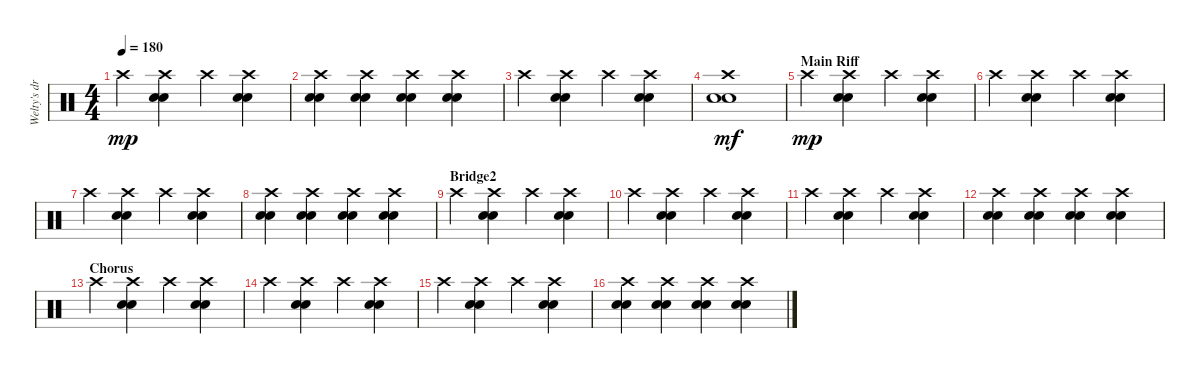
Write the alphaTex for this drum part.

\track ("Welty's drums" "Welty's dr") {instrument percussion}
\staff {score}
\articulation defaults
\ts (4 4)
\tempo 180
\clef neutral
\ks c "Crash high (hit)".4{dy mp}
("Crash high (hit)" "Electric Snare (hit)" "Electric Snare (hit)").4 "Crash high (hit)".4 ("Crash high (hit)" "Electric Snare (hit)" "Electric Snare (hit)").4 |
("Crash high (hit)" "Electric Snare (hit)" "Electric Snare (hit)").4 ("Crash high (hit)" "Electric Snare (hit)" "Electric Snare (hit)").4 ("Crash high (hit)" "Electric Snare (hit)" "Electric Snare (hit)").4 ("Crash high (hit)" "Electric Snare (hit)" "Electric Snare (hit)").4 |
"Crash high (hit)".4 ("Crash high (hit)" "Electric Snare (hit)" "Electric Snare (hit)").4 "Crash high (hit)".4 ("Crash high (hit)" "Electric Snare (hit)" "Electric Snare (hit)").4 |
("Crash high (hit)" "Electric Snare (hit)" "Electric Snare (hit)").1{dy mf} |
\section ("" "Main Riff")
"Crash high (hit)".4{dy mp} ("Crash high (hit)" "Electric Snare (hit)" "Electric Snare (hit)").4 "Crash high (hit)".4 ("Crash high (hit)" "Electric Snare (hit)" "Electric Snare (hit)").4 |
"Crash high (hit)".4 ("Crash high (hit)" "Electric Snare (hit)" "Electric Snare (hit)").4 "Crash high (hit)".4 ("Crash high (hit)" "Electric Snare (hit)" "Electric Snare (hit)").4 |
"Crash high (hit)".4 ("Crash high (hit)" "Electric Snare (hit)" "Electric Snare (hit)").4 "Crash high (hit)".4 ("Crash high (hit)" "Electric Snare (hit)" "Electric Snare (hit)").4 |
("Crash high (hit)" "Electric Snare (hit)" "Electric Snare (hit)").4 ("Crash high (hit)" "Electric Snare (hit)" "Electric Snare (hit)").4 ("Crash high (hit)" "Electric Snare (hit)" "Electric Snare (hit)").4 ("Crash high (hit)" "Electric Snare (hit)" "Electric Snare (hit)").4 |
\section ("" "Bridge2")
"Crash high (hit)".4 ("Crash high (hit)" "Electric Snare (hit)" "Electric Snare (hit)").4 "Crash high (hit)".4 ("Crash high (hit)" "Electric Snare (hit)" "Electric Snare (hit)").4 |
"Crash high (hit)".4 ("Crash high (hit)" "Electric Snare (hit)" "Electric Snare (hit)").4 "Crash high (hit)".4 ("Crash high (hit)" "Electric Snare (hit)" "Electric Snare (hit)").4 |
"Crash high (hit)".4 ("Crash high (hit)" "Electric Snare (hit)" "Electric Snare (hit)").4 "Crash high (hit)".4 ("Crash high (hit)" "Electric Snare (hit)" "Electric Snare (hit)").4 |
("Crash high (hit)" "Electric Snare (hit)" "Electric Snare (hit)").4 ("Crash high (hit)" "Electric Snare (hit)" "Electric Snare (hit)").4 ("Crash high (hit)" "Electric Snare (hit)" "Electric Snare (hit)").4 ("Crash high (hit)" "Electric Snare (hit)" "Electric Snare (hit)").4 |
\section ("" "Chorus")
"Crash high (hit)".4 ("Crash high (hit)" "Electric Snare (hit)" "Electric Snare (hit)").4 "Crash high (hit)".4 ("Crash high (hit)" "Electric Snare (hit)" "Electric Snare (hit)").4 |
"Crash high (hit)".4 ("Crash high (hit)" "Electric Snare (hit)" "Electric Snare (hit)").4 "Crash high (hit)".4 ("Crash high (hit)" "Electric Snare (hit)" "Electric Snare (hit)").4 |
"Crash high (hit)".4 ("Crash high (hit)" "Electric Snare (hit)" "Electric Snare (hit)").4 "Crash high (hit)".4 ("Crash high (hit)" "Electric Snare (hit)" "Electric Snare (hit)").4 |
("Crash high (hit)" "Electric Snare (hit)" "Electric Snare (hit)").4 ("Crash high (hit)" "Electric Snare (hit)" "Electric Snare (hit)").4 ("Crash high (hit)" "Electric Snare (hit)" "Electric Snare (hit)").4 ("Crash high (hit)" "Electric Snare (hit)" "Electric Snare (hit)").4
